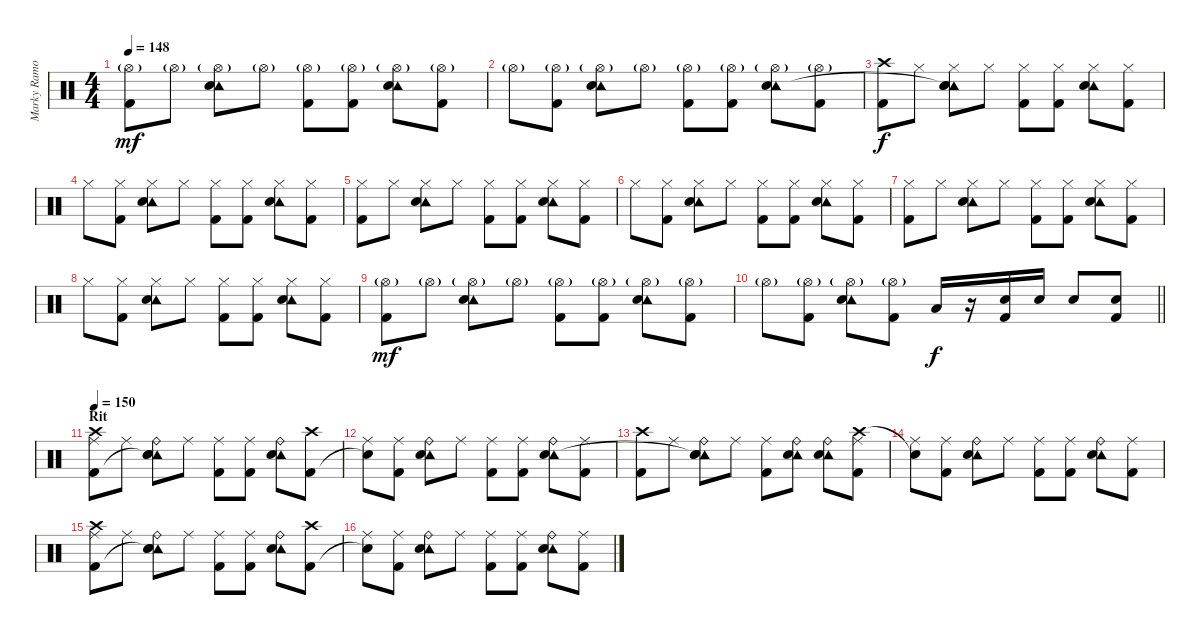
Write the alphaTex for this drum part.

\track ("Marky Ramone - Drum" "Marky Ramo") {instrument percussion}
\staff {score}
\articulation defaults
\ts (4 4)
\tempo 148
\clef neutral
\ks c
("Hi-Hat (open)"{g} "Kick (hit) 2").8{dy mf} "Hi-Hat (open)"{g}.8 ("Hi-Hat (open)"{g} "Tambourine (hit)" "Snare (hit) 2").8 "Hi-Hat (open)"{g}.8 ("Hi-Hat (open)"{g} "Kick (hit) 2").8 ("Hi-Hat (open)"{g} "Kick (hit) 2").8 ("Hi-Hat (open)"{g} "Tambourine (hit)" "Snare (hit) 2").8 ("Hi-Hat (open)"{g} "Kick (hit) 2").8 |
"Hi-Hat (open)"{g}.8 ("Hi-Hat (open)"{g} "Kick (hit) 2").8 ("Hi-Hat (open)"{g} "Tambourine (hit)" "Snare (hit) 2").8 "Hi-Hat (open)"{g}.8 ("Hi-Hat (open)"{g} "Kick (hit) 2").8 ("Hi-Hat (open)"{g} "Kick (hit) 2").8 ("Hi-Hat (open)"{g} "Tambourine (hit)" "Snare (hit) 2").8 ("Hi-Hat (open)"{g} "Kick (hit) 2").8 |
("Crash high (hit)" "Kick (hit) 2").8{dy f} "Hi-Hat (closed)".8 ("Hi-Hat (closed)" "Tambourine (hit)" "Snare (hit)"{t} "Snare (hit) 2").8 "Hi-Hat (closed)".8 ("Hi-Hat (closed)" "Kick (hit) 2").8 ("Hi-Hat (closed)" "Kick (hit) 2").8 ("Hi-Hat (closed)" "Tambourine (hit)" "Snare (hit) 2").8 ("Hi-Hat (closed)" "Kick (hit) 2").8 |
"Hi-Hat (closed)".8 ("Hi-Hat (closed)" "Kick (hit) 2").8 ("Hi-Hat (closed)" "Tambourine (hit)" "Snare (hit) 2").8 "Hi-Hat (closed)".8 ("Hi-Hat (closed)" "Kick (hit) 2").8 ("Hi-Hat (closed)" "Kick (hit) 2").8 ("Hi-Hat (closed)" "Tambourine (hit)" "Snare (hit) 2").8 ("Hi-Hat (closed)" "Kick (hit) 2").8 |
("Hi-Hat (closed)" "Kick (hit) 2").8 "Hi-Hat (closed)".8 ("Hi-Hat (closed)" "Tambourine (hit)" "Snare (hit) 2").8 "Hi-Hat (closed)".8 ("Hi-Hat (closed)" "Kick (hit) 2").8 ("Hi-Hat (closed)" "Kick (hit) 2").8 ("Hi-Hat (closed)" "Tambourine (hit)" "Snare (hit) 2").8 ("Hi-Hat (closed)" "Kick (hit) 2").8 |
"Hi-Hat (closed)".8 ("Hi-Hat (closed)" "Kick (hit) 2").8 ("Hi-Hat (closed)" "Tambourine (hit)" "Snare (hit) 2").8 "Hi-Hat (closed)".8 ("Hi-Hat (closed)" "Kick (hit) 2").8 ("Hi-Hat (closed)" "Kick (hit) 2").8 ("Hi-Hat (closed)" "Tambourine (hit)" "Snare (hit) 2").8 ("Hi-Hat (closed)" "Kick (hit) 2").8 |
("Hi-Hat (closed)" "Kick (hit) 2").8 "Hi-Hat (closed)".8 ("Hi-Hat (closed)" "Tambourine (hit)" "Snare (hit) 2").8 "Hi-Hat (closed)".8 ("Hi-Hat (closed)" "Kick (hit) 2").8 ("Hi-Hat (closed)" "Kick (hit) 2").8 ("Hi-Hat (closed)" "Tambourine (hit)" "Snare (hit) 2").8 ("Hi-Hat (closed)" "Kick (hit) 2").8 |
"Hi-Hat (closed)".8 ("Hi-Hat (closed)" "Kick (hit) 2").8 ("Hi-Hat (closed)" "Tambourine (hit)" "Snare (hit) 2").8 "Hi-Hat (closed)".8 ("Hi-Hat (closed)" "Kick (hit) 2").8 ("Hi-Hat (closed)" "Kick (hit) 2").8 ("Hi-Hat (closed)" "Tambourine (hit)" "Snare (hit) 2").8 ("Hi-Hat (closed)" "Kick (hit) 2").8 |
("Hi-Hat (open)"{g} "Kick (hit) 2").8{dy mf} "Hi-Hat (open)"{g}.8 ("Hi-Hat (open)"{g} "Tambourine (hit)" "Snare (hit) 2").8 "Hi-Hat (open)"{g}.8 ("Hi-Hat (open)"{g} "Kick (hit) 2").8 ("Hi-Hat (open)"{g} "Kick (hit) 2").8 ("Hi-Hat (open)"{g} "Tambourine (hit)" "Snare (hit) 2").8 ("Hi-Hat (open)"{g} "Kick (hit) 2").8 |
\barLineRight lightlight "Hi-Hat (open)"{g}.8
("Hi-Hat (open)"{g} "Kick (hit) 2").8 ("Hi-Hat (open)"{g} "Tambourine (hit)" "Snare (hit) 2").8 ("Hi-Hat (open)"{g} "Kick (hit) 2").8 "Low Floor Tom (hit)".16{dy f} r.16 ("Snare (hit) 2" "Kick (hit) 2").16 "Snare (hit) 2".16 "Snare (hit) 2".8 ("Snare (hit) 2" "Kick (hit) 2").8 |
\section ("" "Rit")
\tempo 150
("Ride (middle)" "Crash high (hit)" "Kick (hit) 2").8 "Ride (middle)".8 ("Ride (bell)" "Tambourine (hit)" "Snare (hit)"{t} "Snare (hit) 2").8 "Ride (middle)".8 ("Ride (middle)" "Kick (hit) 2").8 ("Ride (middle)" "Kick (hit) 2").8 ("Ride (bell)" "Tambourine (hit)" "Snare (hit) 2").8 ("Crash high (hit)" "Kick (hit) 2").8 |
("Ride (middle)" "Snare (hit)"{t}).8 ("Ride (middle)" "Kick (hit) 2").8 ("Ride (bell)" "Tambourine (hit)" "Snare (hit) 2").8 "Ride (middle)".8 ("Ride (middle)" "Kick (hit) 2").8 ("Ride (middle)" "Kick (hit) 2").8 ("Ride (bell)" "Tambourine (hit)" "Snare (hit) 2").8 ("Ride (middle)" "Kick (hit) 2").8 |
("Crash high (hit)" "Kick (hit) 2").8 "Ride (middle)".8 ("Ride (bell)" "Tambourine (hit)" "Snare (hit)"{t} "Snare (hit) 2").8 "Ride (middle)".8 ("Ride (middle)" "Kick (hit) 2").8 ("Ride (bell)" "Tambourine (hit)" "Snare (hit) 2").8 ("Ride (bell)" "Tambourine (hit)" "Snare (hit) 2").8 ("Ride (middle)" "Crash high (hit)" "Kick (hit) 2").8 |
("Ride (middle)" "Snare (hit)"{t}).8 ("Ride (middle)" "Kick (hit) 2").8 ("Ride (bell)" "Tambourine (hit)" "Snare (hit) 2").8 "Ride (middle)".8 ("Ride (middle)" "Kick (hit) 2").8 ("Ride (middle)" "Kick (hit) 2").8 ("Ride (bell)" "Tambourine (hit)" "Snare (hit) 2").8 ("Ride (middle)" "Kick (hit) 2").8 |
("Ride (middle)" "Crash high (hit)" "Kick (hit) 2").8 "Ride (middle)".8 ("Ride (bell)" "Tambourine (hit)" "Snare (hit)"{t} "Snare (hit) 2").8 "Ride (middle)".8 ("Ride (middle)" "Kick (hit) 2").8 ("Ride (middle)" "Kick (hit) 2").8 ("Ride (bell)" "Tambourine (hit)" "Snare (hit) 2").8 ("Crash high (hit)" "Kick (hit) 2").8 |
("Ride (middle)" "Snare (hit)"{t}).8 ("Ride (middle)" "Kick (hit) 2").8 ("Ride (bell)" "Tambourine (hit)" "Snare (hit) 2").8 "Ride (middle)".8 ("Ride (middle)" "Kick (hit) 2").8 ("Ride (middle)" "Kick (hit) 2").8 ("Ride (bell)" "Tambourine (hit)" "Snare (hit) 2").8 ("Ride (middle)" "Kick (hit) 2").8
